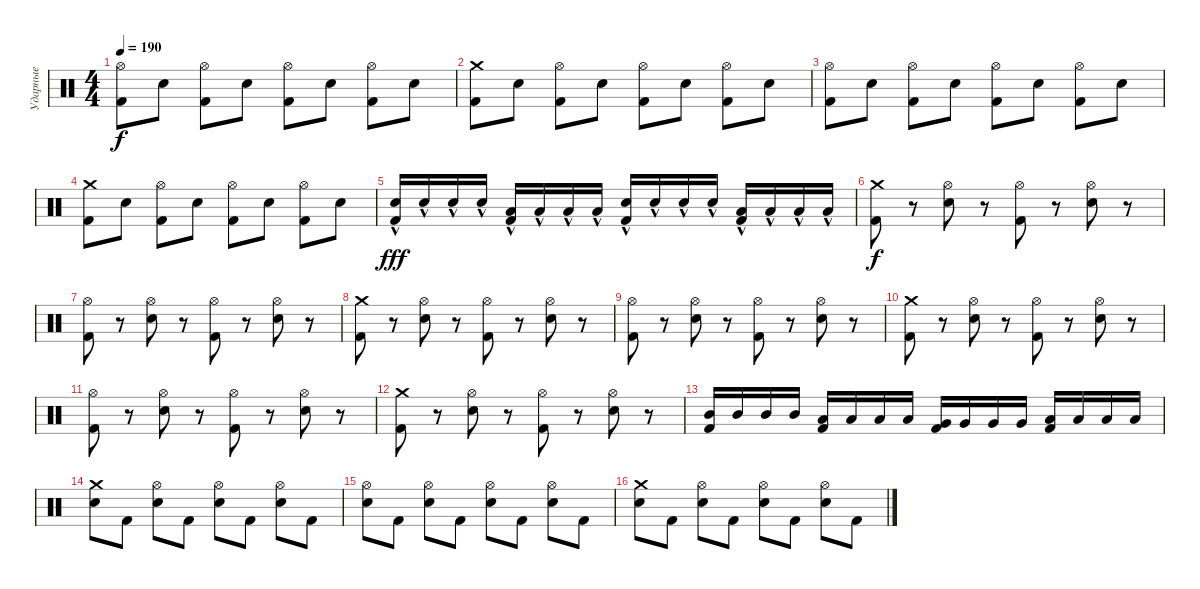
\track ("Ударные" "Ударные") {instrument percussion}
\staff {score}
\articulation defaults
\ts (4 4)
\tempo 190
\clef neutral
\ks c
("Hi-Hat (open)" "Kick (hit) 2").8{dy f} "Electric Snare (hit)".8 ("Hi-Hat (open)" "Kick (hit) 2").8 "Electric Snare (hit)".8 ("Hi-Hat (open)" "Kick (hit) 2").8 "Electric Snare (hit)".8 ("Hi-Hat (open)" "Kick (hit) 2").8 "Electric Snare (hit)".8 |
("Crash medium (hit)" "Kick (hit) 2").8 "Electric Snare (hit)".8 ("Hi-Hat (open)" "Kick (hit) 2").8 "Electric Snare (hit)".8 ("Hi-Hat (open)" "Kick (hit) 2").8 "Electric Snare (hit)".8 ("Hi-Hat (open)" "Kick (hit) 2").8 "Electric Snare (hit)".8 |
("Hi-Hat (open)" "Kick (hit) 2").8 "Electric Snare (hit)".8 ("Hi-Hat (open)" "Kick (hit) 2").8 "Electric Snare (hit)".8 ("Hi-Hat (open)" "Kick (hit) 2").8 "Electric Snare (hit)".8 ("Hi-Hat (open)" "Kick (hit) 2").8 "Electric Snare (hit)".8 |
("Crash medium (hit)" "Kick (hit) 2").8 "Electric Snare (hit)".8 ("Hi-Hat (open)" "Kick (hit) 2").8 "Electric Snare (hit)".8 ("Hi-Hat (open)" "Kick (hit) 2").8 "Electric Snare (hit)".8 ("Hi-Hat (open)" "Kick (hit) 2").8 "Electric Snare (hit)".8 |
("Electric Snare (hit)"{hac} "Kick (hit) 2"{hac}).16{dy fff} "Electric Snare (hit)"{hac}.16 "Electric Snare (hit)"{hac}.16 "Electric Snare (hit)"{hac}.16 ("Low Tom (hit)"{hac} "Kick (hit) 2"{hac}).16 "Low Tom (hit)"{hac}.16 "Low Tom (hit)"{hac}.16 "Low Tom (hit)"{hac}.16 ("Electric Snare (hit)"{hac} "Kick (hit) 2"{hac}).16 "Electric Snare (hit)"{hac}.16 "Electric Snare (hit)"{hac}.16 "Electric Snare (hit)"{hac}.16 ("Low Floor Tom (hit)"{hac} "Kick (hit) 2"{hac}).16 "Low Floor Tom (hit)"{hac}.16 "Low Floor Tom (hit)"{hac}.16 "Low Floor Tom (hit)"{hac}.16 |
("Crash medium (hit)" "Kick (hit) 2").8{dy f} r.8 ("Hi-Hat (open)" "Electric Snare (hit)").8 r.8 ("Hi-Hat (open)" "Kick (hit) 2").8 r.8 ("Hi-Hat (open)" "Electric Snare (hit)").8 r.8 |
("Hi-Hat (open)" "Kick (hit) 2").8 r.8 ("Hi-Hat (open)" "Electric Snare (hit)").8 r.8 ("Hi-Hat (open)" "Kick (hit) 2").8 r.8 ("Hi-Hat (open)" "Electric Snare (hit)").8 r.8 |
("Crash medium (hit)" "Kick (hit) 2").8 r.8 ("Hi-Hat (open)" "Electric Snare (hit)").8 r.8 ("Hi-Hat (open)" "Kick (hit) 2").8 r.8 ("Hi-Hat (open)" "Electric Snare (hit)").8 r.8 |
("Hi-Hat (open)" "Kick (hit) 2").8 r.8 ("Hi-Hat (open)" "Electric Snare (hit)").8 r.8 ("Hi-Hat (open)" "Kick (hit) 2").8 r.8 ("Hi-Hat (open)" "Electric Snare (hit)").8 r.8 |
("Crash medium (hit)" "Kick (hit) 2").8 r.8 ("Hi-Hat (open)" "Electric Snare (hit)").8 r.8 ("Hi-Hat (open)" "Kick (hit) 2").8 r.8 ("Hi-Hat (open)" "Electric Snare (hit)").8 r.8 |
("Hi-Hat (open)" "Kick (hit) 2").8 r.8 ("Hi-Hat (open)" "Electric Snare (hit)").8 r.8 ("Hi-Hat (open)" "Kick (hit) 2").8 r.8 ("Hi-Hat (open)" "Electric Snare (hit)").8 r.8 |
("Crash medium (hit)" "Kick (hit) 2").8 r.8 ("Hi-Hat (open)" "Electric Snare (hit)").8 r.8 ("Hi-Hat (open)" "Kick (hit) 2").8 r.8 ("Hi-Hat (open)" "Electric Snare (hit)").8 r.8 |
("Mid Tom (hit)" "Kick (hit) 2").16 "Mid Tom (hit)".16 "Mid Tom (hit)".16 "Mid Tom (hit)".16 ("Low Tom (hit)" "Kick (hit) 2").16 "Low Tom (hit)".16 "Low Tom (hit)".16 "Low Tom (hit)".16 ("Very Low Tom (hit)" "Kick (hit) 2").16 "Very Low Tom (hit)".16 "Very Low Tom (hit)".16 "Very Low Tom (hit)".16 ("Low Floor Tom (hit)" "Kick (hit) 2").16 "Low Floor Tom (hit)".16 "Low Floor Tom (hit)".16 "Low Floor Tom (hit)".16 |
("Crash medium (hit)" "Electric Snare (hit)").8 "Kick (hit) 2".8 ("Hi-Hat (open)" "Electric Snare (hit)").8 "Kick (hit) 2".8 ("Hi-Hat (open)" "Electric Snare (hit)").8 "Kick (hit) 2".8 ("Hi-Hat (open)" "Electric Snare (hit)").8 "Kick (hit) 2".8 |
("Hi-Hat (open)" "Electric Snare (hit)").8 "Kick (hit) 2".8 ("Hi-Hat (open)" "Electric Snare (hit)").8 "Kick (hit) 2".8 ("Hi-Hat (open)" "Electric Snare (hit)").8 "Kick (hit) 2".8 ("Hi-Hat (open)" "Electric Snare (hit)").8 "Kick (hit) 2".8 |
("Crash medium (hit)" "Electric Snare (hit)").8 "Kick (hit) 2".8 ("Hi-Hat (open)" "Electric Snare (hit)").8 "Kick (hit) 2".8 ("Hi-Hat (open)" "Electric Snare (hit)").8 "Kick (hit) 2".8 ("Hi-Hat (open)" "Electric Snare (hit)").8 "Kick (hit) 2".8
